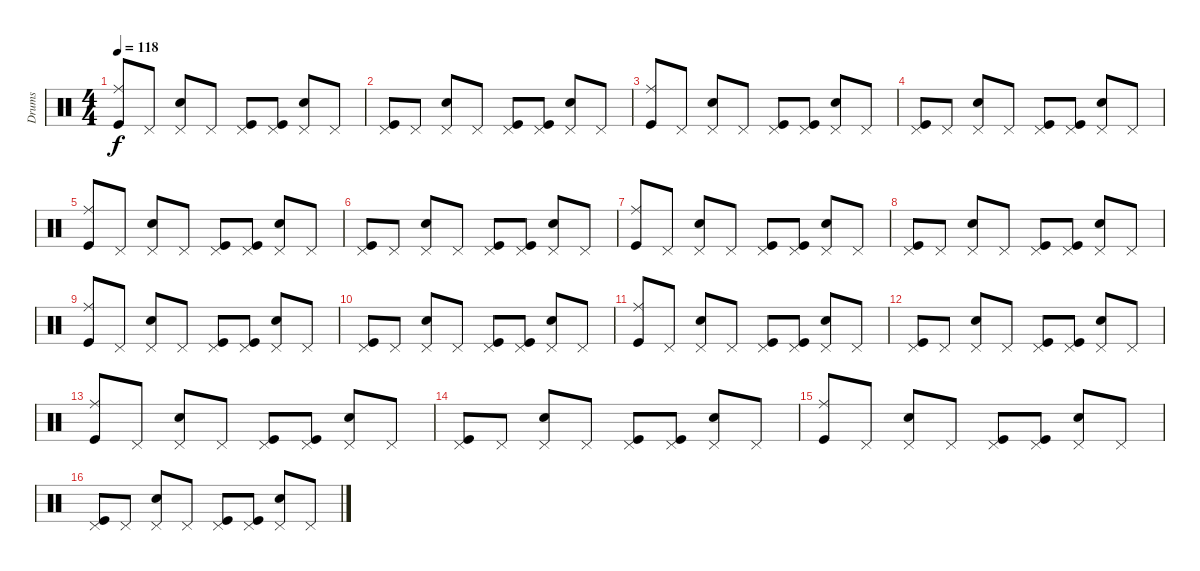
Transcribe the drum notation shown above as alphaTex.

\track ("Drums" "Drums") {instrument percussion}
\staff {score}
\articulation defaults
\ts (4 4)
\tempo 118
\clef neutral
\ks c
("Kick (hit)" "Ride (middle)").8{dy f} "Pedal Hi-Hat (hit)".8 ("Snare (hit) 2" "Pedal Hi-Hat (hit)").8 "Pedal Hi-Hat (hit)".8 ("Kick (hit)" "Pedal Hi-Hat (hit)").8 ("Kick (hit)" "Pedal Hi-Hat (hit)").8 ("Snare (hit) 2" "Pedal Hi-Hat (hit)").8 "Pedal Hi-Hat (hit)".8 |
("Kick (hit)" "Pedal Hi-Hat (hit)").8 "Pedal Hi-Hat (hit)".8 ("Snare (hit) 2" "Pedal Hi-Hat (hit)").8 "Pedal Hi-Hat (hit)".8 ("Kick (hit)" "Pedal Hi-Hat (hit)").8 ("Kick (hit)" "Pedal Hi-Hat (hit)").8 ("Snare (hit) 2" "Pedal Hi-Hat (hit)").8 "Pedal Hi-Hat (hit)".8 |
("Kick (hit)" "Ride (middle)").8 "Pedal Hi-Hat (hit)".8 ("Snare (hit) 2" "Pedal Hi-Hat (hit)").8 "Pedal Hi-Hat (hit)".8 ("Kick (hit)" "Pedal Hi-Hat (hit)").8 ("Kick (hit)" "Pedal Hi-Hat (hit)").8 ("Snare (hit) 2" "Pedal Hi-Hat (hit)").8 "Pedal Hi-Hat (hit)".8 |
("Kick (hit)" "Pedal Hi-Hat (hit)").8 "Pedal Hi-Hat (hit)".8 ("Snare (hit) 2" "Pedal Hi-Hat (hit)").8 "Pedal Hi-Hat (hit)".8 ("Kick (hit)" "Pedal Hi-Hat (hit)").8 ("Kick (hit)" "Pedal Hi-Hat (hit)").8 ("Snare (hit) 2" "Pedal Hi-Hat (hit)").8 "Pedal Hi-Hat (hit)".8 |
("Kick (hit)" "Ride (middle)").8 "Pedal Hi-Hat (hit)".8 ("Snare (hit) 2" "Pedal Hi-Hat (hit)").8 "Pedal Hi-Hat (hit)".8 ("Kick (hit)" "Pedal Hi-Hat (hit)").8 ("Kick (hit)" "Pedal Hi-Hat (hit)").8 ("Snare (hit) 2" "Pedal Hi-Hat (hit)").8 "Pedal Hi-Hat (hit)".8 |
("Kick (hit)" "Pedal Hi-Hat (hit)").8 "Pedal Hi-Hat (hit)".8 ("Snare (hit) 2" "Pedal Hi-Hat (hit)").8 "Pedal Hi-Hat (hit)".8 ("Kick (hit)" "Pedal Hi-Hat (hit)").8 ("Kick (hit)" "Pedal Hi-Hat (hit)").8 ("Snare (hit) 2" "Pedal Hi-Hat (hit)").8 "Pedal Hi-Hat (hit)".8 |
("Kick (hit)" "Ride (middle)").8 "Pedal Hi-Hat (hit)".8 ("Snare (hit) 2" "Pedal Hi-Hat (hit)").8 "Pedal Hi-Hat (hit)".8 ("Kick (hit)" "Pedal Hi-Hat (hit)").8 ("Kick (hit)" "Pedal Hi-Hat (hit)").8 ("Snare (hit) 2" "Pedal Hi-Hat (hit)").8 "Pedal Hi-Hat (hit)".8 |
("Kick (hit)" "Pedal Hi-Hat (hit)").8 "Pedal Hi-Hat (hit)".8 ("Snare (hit) 2" "Pedal Hi-Hat (hit)").8 "Pedal Hi-Hat (hit)".8 ("Kick (hit)" "Pedal Hi-Hat (hit)").8 ("Kick (hit)" "Pedal Hi-Hat (hit)").8 ("Snare (hit) 2" "Pedal Hi-Hat (hit)").8 "Pedal Hi-Hat (hit)".8 |
("Kick (hit)" "Ride (middle)").8 "Pedal Hi-Hat (hit)".8 ("Snare (hit) 2" "Pedal Hi-Hat (hit)").8 "Pedal Hi-Hat (hit)".8 ("Kick (hit)" "Pedal Hi-Hat (hit)").8 ("Kick (hit)" "Pedal Hi-Hat (hit)").8 ("Snare (hit) 2" "Pedal Hi-Hat (hit)").8 "Pedal Hi-Hat (hit)".8 |
("Kick (hit)" "Pedal Hi-Hat (hit)").8 "Pedal Hi-Hat (hit)".8 ("Snare (hit) 2" "Pedal Hi-Hat (hit)").8 "Pedal Hi-Hat (hit)".8 ("Kick (hit)" "Pedal Hi-Hat (hit)").8 ("Kick (hit)" "Pedal Hi-Hat (hit)").8 ("Snare (hit) 2" "Pedal Hi-Hat (hit)").8 "Pedal Hi-Hat (hit)".8 |
("Kick (hit)" "Ride (middle)").8 "Pedal Hi-Hat (hit)".8 ("Snare (hit) 2" "Pedal Hi-Hat (hit)").8 "Pedal Hi-Hat (hit)".8 ("Kick (hit)" "Pedal Hi-Hat (hit)").8 ("Kick (hit)" "Pedal Hi-Hat (hit)").8 ("Snare (hit) 2" "Pedal Hi-Hat (hit)").8 "Pedal Hi-Hat (hit)".8 |
("Kick (hit)" "Pedal Hi-Hat (hit)").8 "Pedal Hi-Hat (hit)".8 ("Snare (hit) 2" "Pedal Hi-Hat (hit)").8 "Pedal Hi-Hat (hit)".8 ("Kick (hit)" "Pedal Hi-Hat (hit)").8 ("Kick (hit)" "Pedal Hi-Hat (hit)").8 ("Snare (hit) 2" "Pedal Hi-Hat (hit)").8 "Pedal Hi-Hat (hit)".8 |
("Kick (hit)" "Ride (middle)").8 "Pedal Hi-Hat (hit)".8 ("Snare (hit) 2" "Pedal Hi-Hat (hit)").8 "Pedal Hi-Hat (hit)".8 ("Kick (hit)" "Pedal Hi-Hat (hit)").8 ("Kick (hit)" "Pedal Hi-Hat (hit)").8 ("Snare (hit) 2" "Pedal Hi-Hat (hit)").8 "Pedal Hi-Hat (hit)".8 |
("Kick (hit)" "Pedal Hi-Hat (hit)").8 "Pedal Hi-Hat (hit)".8 ("Snare (hit) 2" "Pedal Hi-Hat (hit)").8 "Pedal Hi-Hat (hit)".8 ("Kick (hit)" "Pedal Hi-Hat (hit)").8 ("Kick (hit)" "Pedal Hi-Hat (hit)").8 ("Snare (hit) 2" "Pedal Hi-Hat (hit)").8 "Pedal Hi-Hat (hit)".8 |
("Kick (hit)" "Ride (middle)").8 "Pedal Hi-Hat (hit)".8 ("Snare (hit) 2" "Pedal Hi-Hat (hit)").8 "Pedal Hi-Hat (hit)".8 ("Kick (hit)" "Pedal Hi-Hat (hit)").8 ("Kick (hit)" "Pedal Hi-Hat (hit)").8 ("Snare (hit) 2" "Pedal Hi-Hat (hit)").8 "Pedal Hi-Hat (hit)".8 |
("Kick (hit)" "Pedal Hi-Hat (hit)").8 "Pedal Hi-Hat (hit)".8 ("Snare (hit) 2" "Pedal Hi-Hat (hit)").8 "Pedal Hi-Hat (hit)".8 ("Kick (hit)" "Pedal Hi-Hat (hit)").8 ("Kick (hit)" "Pedal Hi-Hat (hit)").8 ("Snare (hit) 2" "Pedal Hi-Hat (hit)").8 "Pedal Hi-Hat (hit)".8
